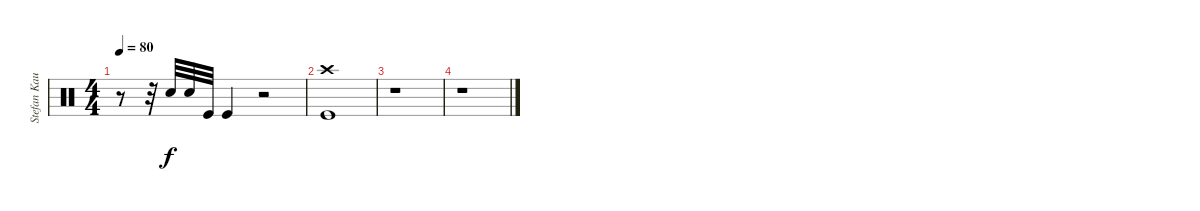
\track ("Stefan Kaufmann" "Stefan Kau") {instrument percussion}
\staff {score}
\articulation defaults
\ts (4 4)
\tempo 80
\clef neutral
\ks c
r.8{dy f} r.32 "Snare (hit) 2".32 "Snare (hit) 2".32 "Kick (hit)".32 "Kick (hit)".4 r.2 |
("Crash high (hit)" "Kick (hit)").1 |
r.1{volume 0} |
r.1
